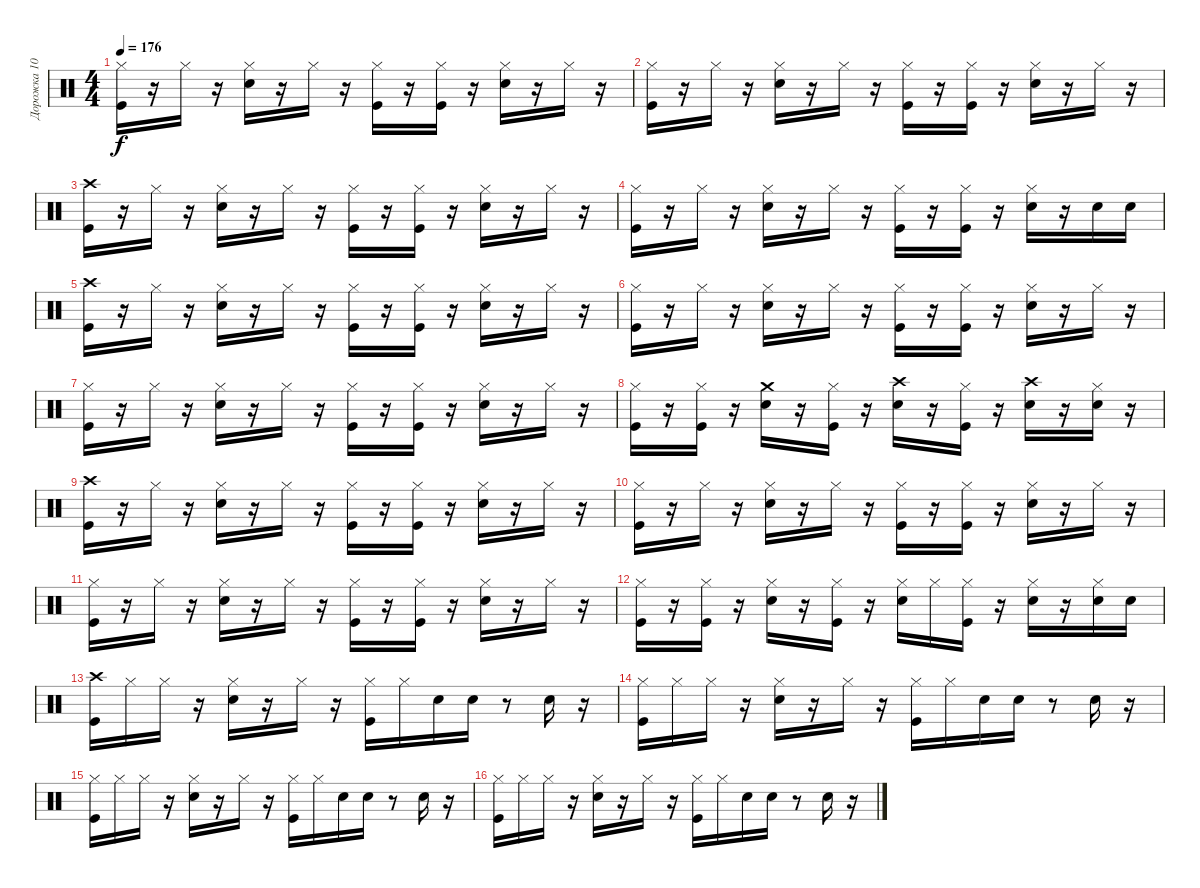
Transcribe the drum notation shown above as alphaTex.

\track ("Дорожка 10" "Дорожка 10") {instrument percussion}
\staff {score}
\articulation defaults
\ts (4 4)
\tempo 176
\clef neutral
\ks c
("Kick (hit)" "Hi-Hat (closed)").16{dy f} r.16 "Hi-Hat (closed)".16 r.16 ("Hi-Hat (closed)" "Electric Snare (hit)").16 r.16 "Hi-Hat (closed)".16 r.16 ("Hi-Hat (closed)" "Kick (hit)").16 r.16 ("Kick (hit)" "Hi-Hat (closed)").16 r.16 ("Electric Snare (hit)" "Hi-Hat (closed)").16 r.16 "Hi-Hat (closed)".16 r.16 |
("Hi-Hat (closed)" "Kick (hit)").16 r.16 "Hi-Hat (closed)".16 r.16 ("Electric Snare (hit)" "Hi-Hat (closed)").16 r.16 "Hi-Hat (closed)".16 r.16 ("Hi-Hat (closed)" "Kick (hit)").16 r.16 ("Kick (hit)" "Hi-Hat (closed)").16 r.16 ("Hi-Hat (closed)" "Electric Snare (hit)").16 r.16 "Hi-Hat (closed)".16 r.16 |
("Crash high (hit)" "Kick (hit)").16 r.16 "Hi-Hat (closed)".16 r.16 ("Hi-Hat (closed)" "Electric Snare (hit)").16 r.16 "Hi-Hat (closed)".16 r.16 ("Hi-Hat (closed)" "Kick (hit)").16 r.16 ("Kick (hit)" "Hi-Hat (closed)").16 r.16 ("Hi-Hat (closed)" "Electric Snare (hit)").16 r.16 "Hi-Hat (closed)".16 r.16 |
("Hi-Hat (closed)" "Kick (hit)").16 r.16 "Hi-Hat (closed)".16 r.16 ("Hi-Hat (closed)" "Electric Snare (hit)").16 r.16 "Hi-Hat (closed)".16 r.16 ("Kick (hit)" "Hi-Hat (closed)").16 r.16 ("Hi-Hat (closed)" "Kick (hit)").16 r.16 ("Electric Snare (hit)" "Hi-Hat (closed)").16 r.16 "Electric Snare (hit)".16 "Electric Snare (hit)".16 |
("Crash high (hit)" "Kick (hit)").16 r.16 "Hi-Hat (closed)".16 r.16 ("Hi-Hat (closed)" "Electric Snare (hit)").16 r.16 "Hi-Hat (closed)".16 r.16 ("Hi-Hat (closed)" "Kick (hit)").16 r.16 ("Hi-Hat (closed)" "Kick (hit)").16 r.16 ("Hi-Hat (closed)" "Electric Snare (hit)").16 r.16 "Hi-Hat (closed)".16 r.16 |
("Kick (hit)" "Hi-Hat (closed)").16 r.16 "Hi-Hat (closed)".16 r.16 ("Hi-Hat (closed)" "Electric Snare (hit)").16 r.16 "Hi-Hat (closed)".16 r.16 ("Hi-Hat (closed)" "Kick (hit)").16 r.16 ("Hi-Hat (closed)" "Kick (hit)").16 r.16 ("Hi-Hat (closed)" "Electric Snare (hit)").16 r.16 "Hi-Hat (closed)".16 r.16 |
("Kick (hit)" "Hi-Hat (closed)").16 r.16 "Hi-Hat (closed)".16 r.16 ("Electric Snare (hit)" "Hi-Hat (closed)").16 r.16 "Hi-Hat (closed)".16 r.16 ("Kick (hit)" "Hi-Hat (closed)").16 r.16 ("Hi-Hat (closed)" "Kick (hit)").16 r.16 ("Hi-Hat (closed)" "Electric Snare (hit)").16 r.16 "Hi-Hat (closed)".16 r.16 |
("Hi-Hat (closed)" "Kick (hit)").16 r.16 ("Hi-Hat (closed)" "Kick (hit)").16 r.16 ("Electric Snare (hit)" "Crash medium (hit)").16 r.16 ("Kick (hit)" "Hi-Hat (closed)").16 r.16 ("Electric Snare (hit)" "Crash high (hit)").16 r.16 ("Kick (hit)" "Hi-Hat (closed)").16 r.16 ("Crash high (hit)" "Electric Snare (hit)").16 r.16 ("Hi-Hat (closed)" "Electric Snare (hit)").16 r.16 |
("Kick (hit)" "Crash high (hit)").16 r.16 "Hi-Hat (closed)".16 r.16 ("Electric Snare (hit)" "Hi-Hat (closed)").16 r.16 "Hi-Hat (closed)".16 r.16 ("Hi-Hat (closed)" "Kick (hit)").16 r.16 ("Hi-Hat (closed)" "Kick (hit)").16 r.16 ("Hi-Hat (closed)" "Electric Snare (hit)").16 r.16 "Hi-Hat (closed)".16 r.16 |
("Kick (hit)" "Hi-Hat (closed)").16 r.16 "Hi-Hat (closed)".16 r.16 ("Electric Snare (hit)" "Hi-Hat (closed)").16 r.16 "Hi-Hat (closed)".16 r.16 ("Kick (hit)" "Hi-Hat (closed)").16 r.16 ("Hi-Hat (closed)" "Kick (hit)").16 r.16 ("Electric Snare (hit)" "Hi-Hat (closed)").16 r.16 "Hi-Hat (closed)".16 r.16 |
("Hi-Hat (closed)" "Kick (hit)").16 r.16 "Hi-Hat (closed)".16 r.16 ("Electric Snare (hit)" "Hi-Hat (closed)").16 r.16 "Hi-Hat (closed)".16 r.16 ("Kick (hit)" "Hi-Hat (closed)").16 r.16 ("Kick (hit)" "Hi-Hat (closed)").16 r.16 ("Electric Snare (hit)" "Hi-Hat (closed)").16 r.16 "Hi-Hat (closed)".16 r.16 |
("Kick (hit)" "Hi-Hat (closed)").16 r.16 ("Hi-Hat (closed)" "Kick (hit)").16 r.16 ("Hi-Hat (closed)" "Electric Snare (hit)").16 r.16 ("Hi-Hat (closed)" "Kick (hit)").16 r.16 ("Hi-Hat (closed)" "Electric Snare (hit)").16 "Hi-Hat (closed)".16 ("Hi-Hat (closed)" "Kick (hit)").16 r.16 ("Hi-Hat (closed)" "Electric Snare (hit)").16 r.16 ("Hi-Hat (closed)" "Electric Snare (hit)").16 "Electric Snare (hit)".16 |
("Kick (hit)" "Crash high (hit)").16 "Hi-Hat (closed)".16 "Hi-Hat (closed)".16 r.16 ("Hi-Hat (closed)" "Electric Snare (hit)").16 r.16 "Hi-Hat (closed)".16 r.16 ("Hi-Hat (closed)" "Kick (hit)").16 "Hi-Hat (closed)".16 "Electric Snare (hit)".16 "Electric Snare (hit)".16 r.8 "Electric Snare (hit)".16 r.16 |
("Hi-Hat (closed)" "Kick (hit)").16 "Hi-Hat (closed)".16 "Hi-Hat (closed)".16 r.16 ("Electric Snare (hit)" "Hi-Hat (closed)").16 r.16 "Hi-Hat (closed)".16 r.16 ("Kick (hit)" "Hi-Hat (closed)").16 "Hi-Hat (closed)".16 "Electric Snare (hit)".16 "Electric Snare (hit)".16 r.8 "Electric Snare (hit)".16 r.16 |
("Hi-Hat (closed)" "Kick (hit)").16 "Hi-Hat (closed)".16 "Hi-Hat (closed)".16 r.16 ("Hi-Hat (closed)" "Electric Snare (hit)").16 r.16 "Hi-Hat (closed)".16 r.16 ("Kick (hit)" "Hi-Hat (closed)").16 "Hi-Hat (closed)".16 "Electric Snare (hit)".16 "Electric Snare (hit)".16 r.8 "Electric Snare (hit)".16 r.16 |
("Kick (hit)" "Hi-Hat (closed)").16 "Hi-Hat (closed)".16 "Hi-Hat (closed)".16 r.16 ("Electric Snare (hit)" "Hi-Hat (closed)").16 r.16 "Hi-Hat (closed)".16 r.16 ("Kick (hit)" "Hi-Hat (closed)").16 "Hi-Hat (closed)".16 "Electric Snare (hit)".16 "Electric Snare (hit)".16 r.8 "Electric Snare (hit)".16 r.16
